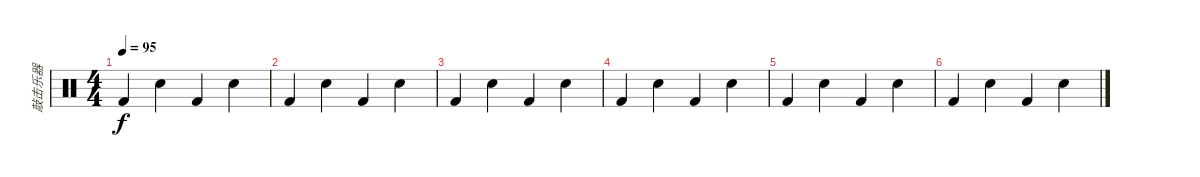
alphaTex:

\track ("敲击乐器" "敲击乐器") {instrument percussion}
\staff {score}
\articulation defaults
\ts (4 4)
\tempo 95
\clef neutral
\ks c "Kick (hit) 2".4{dy f} "Electric Snare (hit)".4 "Kick (hit) 2".4 "Electric Snare (hit)".4
|
"Kick (hit) 2".4 "Electric Snare (hit)".4 "Kick (hit) 2".4 "Electric Snare (hit)".4 |
"Kick (hit) 2".4 "Electric Snare (hit)".4 "Kick (hit) 2".4 "Electric Snare (hit)".4 |
"Kick (hit) 2".4 "Electric Snare (hit)".4 "Kick (hit) 2".4 "Electric Snare (hit)".4 |
"Kick (hit) 2".4 "Electric Snare (hit)".4 "Kick (hit) 2".4 "Electric Snare (hit)".4 |
"Kick (hit) 2".4 "Electric Snare (hit)".4 "Kick (hit) 2".4 "Electric Snare (hit)".4
